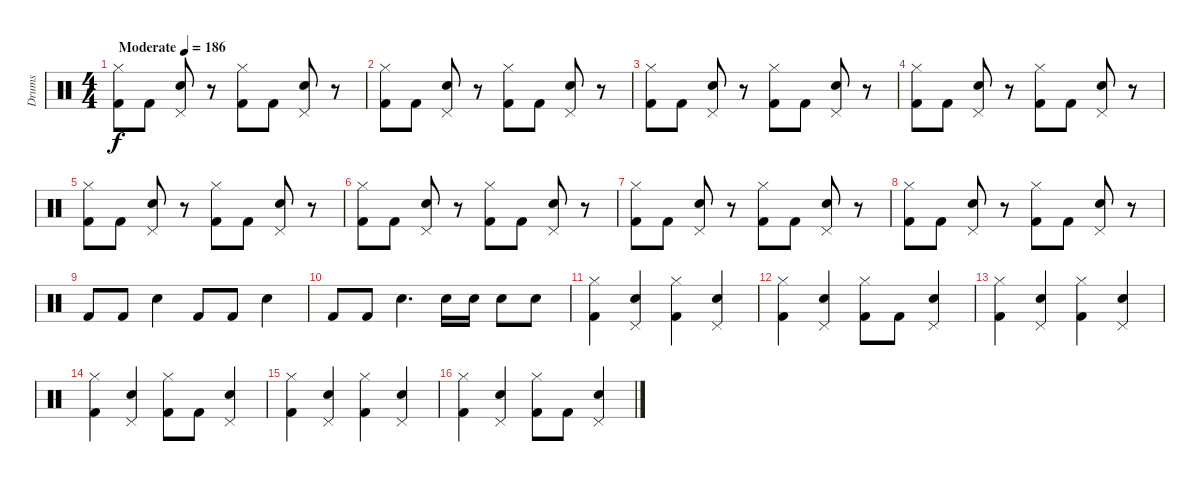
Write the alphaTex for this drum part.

\track ("Drums" "Drums") {instrument percussion}
\staff {score}
\articulation defaults
\ts (4 4)
\tempo (186 "Moderate")
\clef neutral
\ks c
("Hi-Hat (closed)" "Kick (hit) 2").8{dy f} "Kick (hit) 2".8 ("Pedal Hi-Hat (hit)" "Electric Snare (hit)").8 r.8 ("Hi-Hat (closed)" "Kick (hit) 2").8 "Kick (hit) 2".8 ("Pedal Hi-Hat (hit)" "Electric Snare (hit)").8 r.8 |
("Hi-Hat (closed)" "Kick (hit) 2").8 "Kick (hit) 2".8 ("Pedal Hi-Hat (hit)" "Electric Snare (hit)").8 r.8 ("Hi-Hat (closed)" "Kick (hit) 2").8 "Kick (hit) 2".8 ("Pedal Hi-Hat (hit)" "Electric Snare (hit)").8 r.8 |
("Hi-Hat (closed)" "Kick (hit) 2").8 "Kick (hit) 2".8 ("Pedal Hi-Hat (hit)" "Electric Snare (hit)").8 r.8 ("Hi-Hat (closed)" "Kick (hit) 2").8 "Kick (hit) 2".8 ("Pedal Hi-Hat (hit)" "Electric Snare (hit)").8 r.8 |
("Hi-Hat (closed)" "Kick (hit) 2").8 "Kick (hit) 2".8 ("Pedal Hi-Hat (hit)" "Electric Snare (hit)").8 r.8 ("Hi-Hat (closed)" "Kick (hit) 2").8 "Kick (hit) 2".8 ("Pedal Hi-Hat (hit)" "Electric Snare (hit)").8 r.8 |
("Hi-Hat (closed)" "Kick (hit) 2").8 "Kick (hit) 2".8 ("Pedal Hi-Hat (hit)" "Electric Snare (hit)").8 r.8 ("Hi-Hat (closed)" "Kick (hit) 2").8 "Kick (hit) 2".8 ("Pedal Hi-Hat (hit)" "Electric Snare (hit)").8 r.8 |
("Hi-Hat (closed)" "Kick (hit) 2").8 "Kick (hit) 2".8 ("Pedal Hi-Hat (hit)" "Electric Snare (hit)").8 r.8 ("Hi-Hat (closed)" "Kick (hit) 2").8 "Kick (hit) 2".8 ("Pedal Hi-Hat (hit)" "Electric Snare (hit)").8 r.8 |
("Hi-Hat (closed)" "Kick (hit) 2").8 "Kick (hit) 2".8 ("Pedal Hi-Hat (hit)" "Electric Snare (hit)").8 r.8 ("Hi-Hat (closed)" "Kick (hit) 2").8 "Kick (hit) 2".8 ("Pedal Hi-Hat (hit)" "Electric Snare (hit)").8 r.8 |
("Hi-Hat (closed)" "Kick (hit) 2").8 "Kick (hit) 2".8 ("Pedal Hi-Hat (hit)" "Electric Snare (hit)").8 r.8 ("Hi-Hat (closed)" "Kick (hit) 2").8 "Kick (hit) 2".8 ("Pedal Hi-Hat (hit)" "Electric Snare (hit)").8 r.8 |
"Kick (hit) 2".8 "Kick (hit) 2".8 "Electric Snare (hit)".4 "Kick (hit) 2".8 "Kick (hit) 2".8 "Electric Snare (hit)".4 |
"Kick (hit) 2".8 "Kick (hit) 2".8 "Electric Snare (hit)".4{d} "Electric Snare (hit)".16 "Electric Snare (hit)".16 "Electric Snare (hit)".8 "Electric Snare (hit)".8 |
("Hi-Hat (closed)" "Kick (hit) 2").4 ("Pedal Hi-Hat (hit)" "Electric Snare (hit)").4 ("Hi-Hat (closed)" "Kick (hit) 2").4 ("Pedal Hi-Hat (hit)" "Electric Snare (hit)").4 |
("Hi-Hat (closed)" "Kick (hit) 2").4 ("Pedal Hi-Hat (hit)" "Electric Snare (hit)").4 ("Hi-Hat (closed)" "Kick (hit) 2").8 "Kick (hit) 2".8 ("Pedal Hi-Hat (hit)" "Electric Snare (hit)").4 |
("Hi-Hat (closed)" "Kick (hit) 2").4 ("Pedal Hi-Hat (hit)" "Electric Snare (hit)").4 ("Hi-Hat (closed)" "Kick (hit) 2").4 ("Pedal Hi-Hat (hit)" "Electric Snare (hit)").4 |
("Hi-Hat (closed)" "Kick (hit) 2").4 ("Pedal Hi-Hat (hit)" "Electric Snare (hit)").4 ("Hi-Hat (closed)" "Kick (hit) 2").8 "Kick (hit) 2".8 ("Pedal Hi-Hat (hit)" "Electric Snare (hit)").4 |
("Hi-Hat (closed)" "Kick (hit) 2").4 ("Pedal Hi-Hat (hit)" "Electric Snare (hit)").4 ("Hi-Hat (closed)" "Kick (hit) 2").4 ("Pedal Hi-Hat (hit)" "Electric Snare (hit)").4 |
("Hi-Hat (closed)" "Kick (hit) 2").4 ("Pedal Hi-Hat (hit)" "Electric Snare (hit)").4 ("Hi-Hat (closed)" "Kick (hit) 2").8 "Kick (hit) 2".8 ("Pedal Hi-Hat (hit)" "Electric Snare (hit)").4
